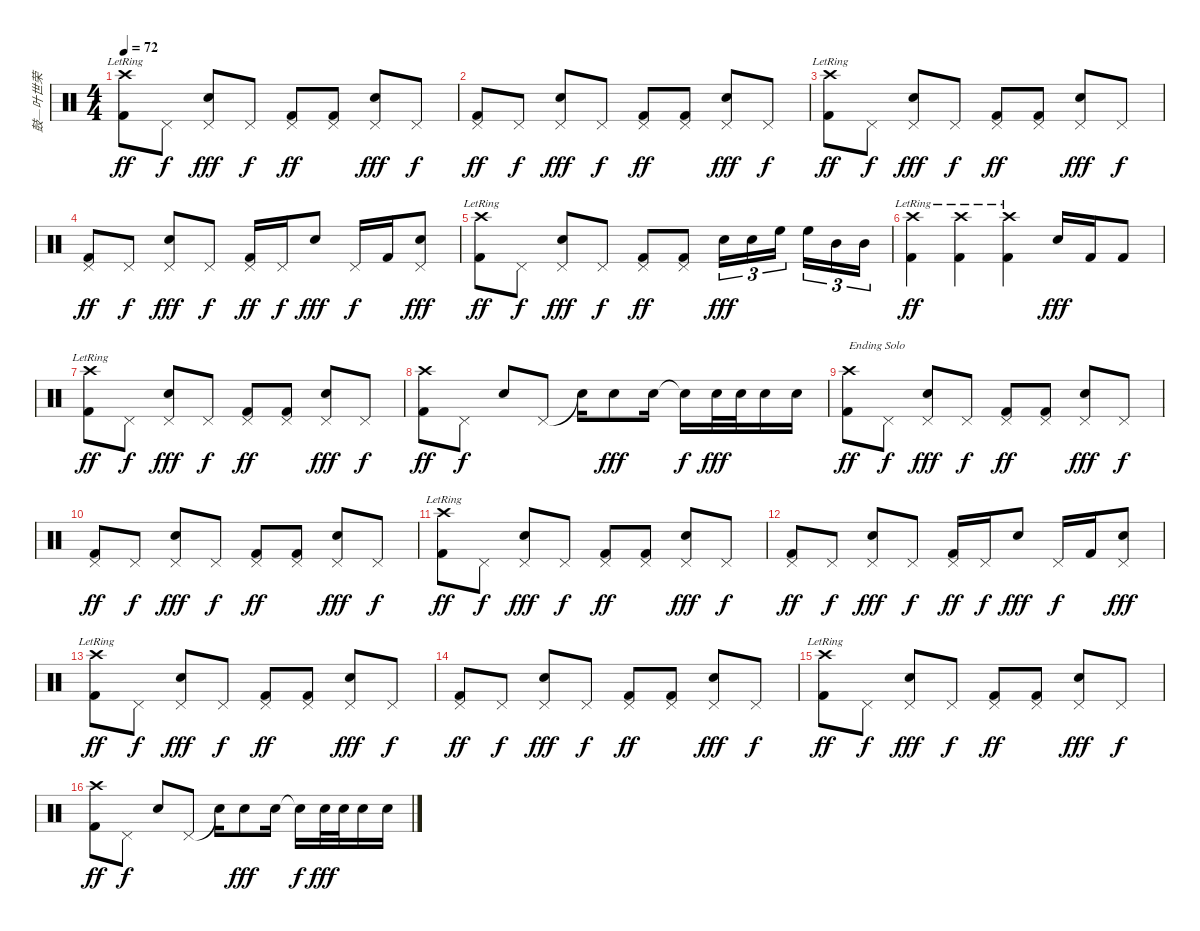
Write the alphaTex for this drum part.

\track ("鼓—叶世荣" "鼓—叶世荣") {instrument percussion}
\staff {score}
\articulation defaults
\ts (4 4)
\tempo 72
\clef neutral
\ks c
("Crash high (hit)"{lr} "Kick (hit) 2").8{dy ff} "Pedal Hi-Hat (hit)".8{dy f} ("Pedal Hi-Hat (hit)" "Electric Snare (hit)").8{dy fff} "Pedal Hi-Hat (hit)".8{dy f} ("Pedal Hi-Hat (hit)" "Kick (hit) 2").8{dy ff} ("Pedal Hi-Hat (hit)" "Kick (hit) 2").8 ("Pedal Hi-Hat (hit)" "Electric Snare (hit)").8{dy fff} "Pedal Hi-Hat (hit)".8{dy f} |
("Pedal Hi-Hat (hit)" "Kick (hit) 2").8{dy ff} "Pedal Hi-Hat (hit)".8{dy f} ("Pedal Hi-Hat (hit)" "Electric Snare (hit)").8{dy fff} "Pedal Hi-Hat (hit)".8{dy f} ("Pedal Hi-Hat (hit)" "Kick (hit) 2").8{dy ff} ("Pedal Hi-Hat (hit)" "Kick (hit) 2").8 ("Pedal Hi-Hat (hit)" "Electric Snare (hit)").8{dy fff} "Pedal Hi-Hat (hit)".8{dy f} |
("Crash high (hit)"{lr} "Kick (hit) 2").8{dy ff} "Pedal Hi-Hat (hit)".8{dy f} ("Pedal Hi-Hat (hit)" "Electric Snare (hit)").8{dy fff} "Pedal Hi-Hat (hit)".8{dy f} ("Pedal Hi-Hat (hit)" "Kick (hit) 2").8{dy ff} ("Pedal Hi-Hat (hit)" "Kick (hit) 2").8 ("Pedal Hi-Hat (hit)" "Electric Snare (hit)").8{dy fff} "Pedal Hi-Hat (hit)".8{dy f} |
("Pedal Hi-Hat (hit)" "Kick (hit) 2").8{dy ff} "Pedal Hi-Hat (hit)".8{dy f} ("Pedal Hi-Hat (hit)" "Electric Snare (hit)").8{dy fff} "Pedal Hi-Hat (hit)".8{dy f} ("Pedal Hi-Hat (hit)" "Kick (hit) 2").16{dy ff} "Pedal Hi-Hat (hit)".16{dy f} "Electric Snare (hit)".8{dy fff} "Pedal Hi-Hat (hit)".16{dy f} "Kick (hit) 2".16 ("Pedal Hi-Hat (hit)" "Electric Snare (hit)").8{dy fff} |
("Crash high (hit)"{lr} "Kick (hit) 2").8{dy ff} "Pedal Hi-Hat (hit)".8{dy f} ("Pedal Hi-Hat (hit)" "Electric Snare (hit)").8{dy fff} "Pedal Hi-Hat (hit)".8{dy f} ("Pedal Hi-Hat (hit)" "Kick (hit) 2").8{dy ff} ("Pedal Hi-Hat (hit)" "Kick (hit) 2").8 "Electric Snare (hit)".16{tu (3 2) dy fff} "Electric Snare (hit)".16{tu (3 2)} "High Floor Tom (hit)".16{tu (3 2)} "High Floor Tom (hit)".16{tu (3 2)} "Mid Tom (hit)".16{tu (3 2)} "Mid Tom (hit)".16{tu (3 2)} |
("Crash high (hit)"{lr} "Kick (hit) 2").4{dy ff} ("Crash high (hit)"{lr} "Kick (hit) 2").4 ("Crash high (hit)"{lr} "Kick (hit) 2").4 "Electric Snare (hit)".16{dy fff} "Kick (hit) 2".16 "Kick (hit) 2".8 |
("Crash high (hit)"{lr} "Kick (hit) 2").8{dy ff} "Pedal Hi-Hat (hit)".8{dy f} ("Pedal Hi-Hat (hit)" "Electric Snare (hit)").8{dy fff} "Pedal Hi-Hat (hit)".8{dy f} ("Pedal Hi-Hat (hit)" "Kick (hit) 2").8{dy ff} ("Pedal Hi-Hat (hit)" "Kick (hit) 2").8 ("Pedal Hi-Hat (hit)" "Electric Snare (hit)").8{dy fff} "Pedal Hi-Hat (hit)".8{dy f} |
("Crash high (hit)" "Kick (hit) 2").8{dy ff} "Pedal Hi-Hat (hit)".8{dy f} "Electric Snare (hit)".8 "Pedal Hi-Hat (hit)".8 "Snare (hit)"{t}.16 "Electric Snare (hit)".8{dy fff} "Electric Snare (hit)".16 "Snare (hit)"{t}.16{dy f} "Electric Snare (hit)".32{dy fff} "Electric Snare (hit)".32 "Electric Snare (hit)".16 "Electric Snare (hit)".16 |
("Crash high (hit)" "Kick (hit) 2").8{txt "Ending Solo" dy ff} "Pedal Hi-Hat (hit)".8{dy f} ("Pedal Hi-Hat (hit)" "Electric Snare (hit)").8{dy fff} "Pedal Hi-Hat (hit)".8{dy f} ("Pedal Hi-Hat (hit)" "Kick (hit) 2").8{dy ff} ("Pedal Hi-Hat (hit)" "Kick (hit) 2").8 ("Pedal Hi-Hat (hit)" "Electric Snare (hit)").8{dy fff} "Pedal Hi-Hat (hit)".8{dy f} |
("Pedal Hi-Hat (hit)" "Kick (hit) 2").8{dy ff} "Pedal Hi-Hat (hit)".8{dy f} ("Pedal Hi-Hat (hit)" "Electric Snare (hit)").8{dy fff} "Pedal Hi-Hat (hit)".8{dy f} ("Pedal Hi-Hat (hit)" "Kick (hit) 2").8{dy ff} ("Pedal Hi-Hat (hit)" "Kick (hit) 2").8 ("Pedal Hi-Hat (hit)" "Electric Snare (hit)").8{dy fff} "Pedal Hi-Hat (hit)".8{dy f} |
("Crash high (hit)"{lr} "Kick (hit) 2").8{dy ff} "Pedal Hi-Hat (hit)".8{dy f} ("Pedal Hi-Hat (hit)" "Electric Snare (hit)").8{dy fff} "Pedal Hi-Hat (hit)".8{dy f} ("Pedal Hi-Hat (hit)" "Kick (hit) 2").8{dy ff} ("Pedal Hi-Hat (hit)" "Kick (hit) 2").8 ("Pedal Hi-Hat (hit)" "Electric Snare (hit)").8{dy fff} "Pedal Hi-Hat (hit)".8{dy f} |
("Pedal Hi-Hat (hit)" "Kick (hit) 2").8{dy ff} "Pedal Hi-Hat (hit)".8{dy f} ("Pedal Hi-Hat (hit)" "Electric Snare (hit)").8{dy fff} "Pedal Hi-Hat (hit)".8{dy f} ("Pedal Hi-Hat (hit)" "Kick (hit) 2").16{dy ff} "Pedal Hi-Hat (hit)".16{dy f} "Electric Snare (hit)".8{dy fff} "Pedal Hi-Hat (hit)".16{dy f} "Kick (hit) 2".16 ("Pedal Hi-Hat (hit)" "Electric Snare (hit)").8{dy fff} |
("Crash high (hit)"{lr} "Kick (hit) 2").8{dy ff} "Pedal Hi-Hat (hit)".8{dy f} ("Pedal Hi-Hat (hit)" "Electric Snare (hit)").8{dy fff} "Pedal Hi-Hat (hit)".8{dy f} ("Pedal Hi-Hat (hit)" "Kick (hit) 2").8{dy ff} ("Pedal Hi-Hat (hit)" "Kick (hit) 2").8 ("Pedal Hi-Hat (hit)" "Electric Snare (hit)").8{dy fff} "Pedal Hi-Hat (hit)".8{dy f} |
("Pedal Hi-Hat (hit)" "Kick (hit) 2").8{dy ff} "Pedal Hi-Hat (hit)".8{dy f} ("Pedal Hi-Hat (hit)" "Electric Snare (hit)").8{dy fff} "Pedal Hi-Hat (hit)".8{dy f} ("Pedal Hi-Hat (hit)" "Kick (hit) 2").8{dy ff} ("Pedal Hi-Hat (hit)" "Kick (hit) 2").8 ("Pedal Hi-Hat (hit)" "Electric Snare (hit)").8{dy fff} "Pedal Hi-Hat (hit)".8{dy f} |
("Crash high (hit)"{lr} "Kick (hit) 2").8{dy ff} "Pedal Hi-Hat (hit)".8{dy f} ("Pedal Hi-Hat (hit)" "Electric Snare (hit)").8{dy fff} "Pedal Hi-Hat (hit)".8{dy f} ("Pedal Hi-Hat (hit)" "Kick (hit) 2").8{dy ff} ("Pedal Hi-Hat (hit)" "Kick (hit) 2").8 ("Pedal Hi-Hat (hit)" "Electric Snare (hit)").8{dy fff} "Pedal Hi-Hat (hit)".8{dy f} |
("Crash high (hit)" "Kick (hit) 2").8{dy ff} "Pedal Hi-Hat (hit)".8{dy f} "Electric Snare (hit)".8 "Pedal Hi-Hat (hit)".8 "Snare (hit)"{t}.16 "Electric Snare (hit)".8{dy fff} "Electric Snare (hit)".16 "Snare (hit)"{t}.16{dy f} "Electric Snare (hit)".32{dy fff} "Electric Snare (hit)".32 "Electric Snare (hit)".16 "Electric Snare (hit)".16
